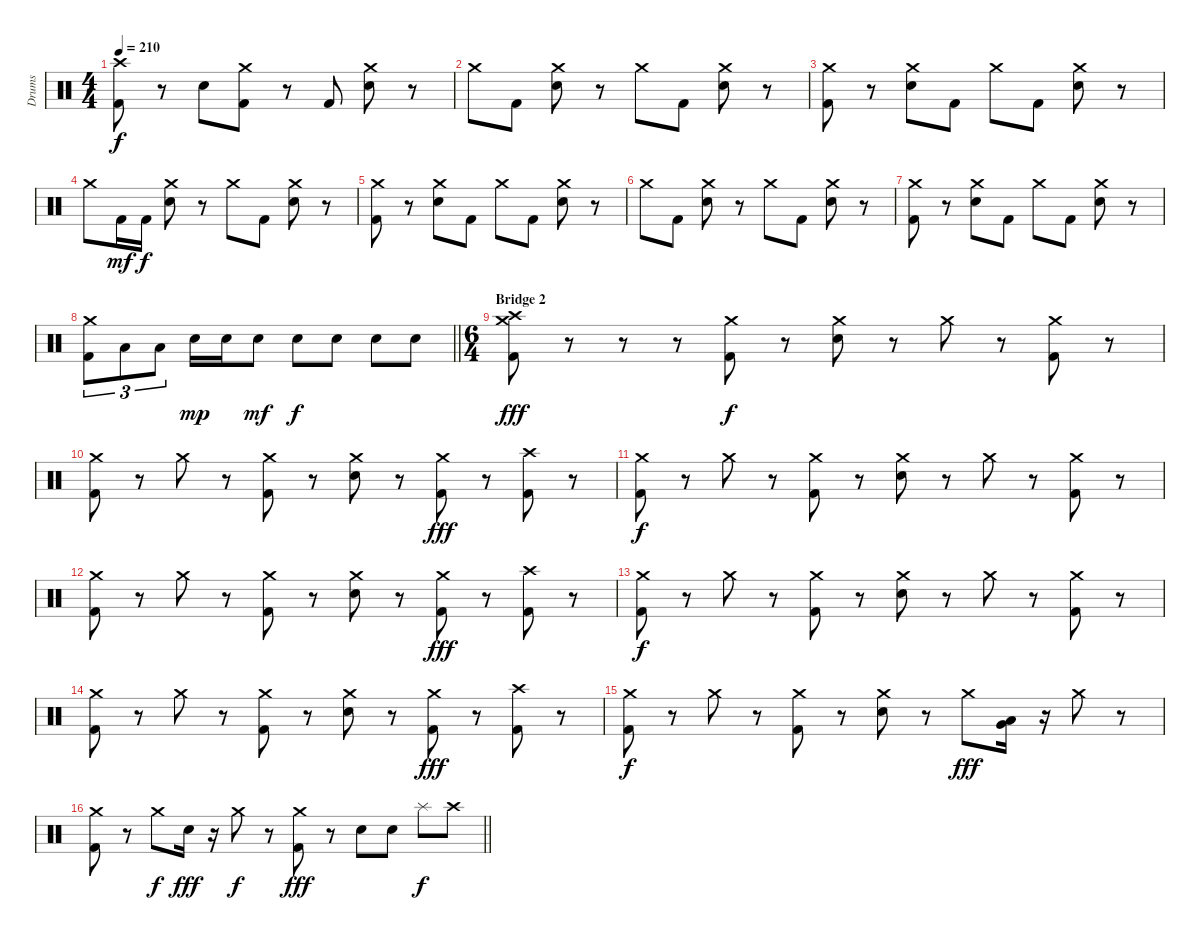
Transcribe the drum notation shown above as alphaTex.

\track ("Drums" "Drums") {instrument percussion}
\staff {score}
\articulation defaults
\ts (4 4)
\tempo 210
\clef neutral
\ks c
("Crash high (hit)" "Kick (hit) 2").8{dy f} r.8 "Electric Snare (hit)".8 ("Crash medium (hit)" "Kick (hit) 2").8 r.8 "Kick (hit) 2".8 ("Crash medium (hit)" "Electric Snare (hit)").8 r.8 |
"Crash medium (hit)".8 "Kick (hit) 2".8 ("Crash medium (hit)" "Electric Snare (hit)").8 r.8 "Crash medium (hit)".8 "Kick (hit) 2".8 ("Crash medium (hit)" "Electric Snare (hit)").8 r.8 |
("Crash medium (hit)" "Kick (hit) 2").8 r.8 ("Crash medium (hit)" "Electric Snare (hit)").8 "Kick (hit) 2".8 "Crash medium (hit)".8 "Kick (hit) 2".8 ("Crash medium (hit)" "Electric Snare (hit)").8 r.8 |
"Crash medium (hit)".8 "Kick (hit) 2".16{dy mf} "Kick (hit) 2".16{dy f} ("Crash medium (hit)" "Electric Snare (hit)").8 r.8 "Crash medium (hit)".8 "Kick (hit) 2".8 ("Crash medium (hit)" "Electric Snare (hit)").8 r.8 |
("Crash medium (hit)" "Kick (hit) 2").8 r.8 ("Crash medium (hit)" "Electric Snare (hit)").8 "Kick (hit) 2".8 "Crash medium (hit)".8 "Kick (hit) 2".8 ("Crash medium (hit)" "Electric Snare (hit)").8 r.8 |
"Crash medium (hit)".8 "Kick (hit) 2".8 ("Crash medium (hit)" "Electric Snare (hit)").8 r.8 "Crash medium (hit)".8 "Kick (hit) 2".8 ("Crash medium (hit)" "Electric Snare (hit)").8 r.8 |
("Crash medium (hit)" "Kick (hit) 2").8 r.8 ("Crash medium (hit)" "Electric Snare (hit)").8 "Kick (hit) 2".8 "Crash medium (hit)".8 "Kick (hit) 2".8 ("Crash medium (hit)" "Electric Snare (hit)").8 r.8 |
\barLineRight lightlight
("Crash medium (hit)" "Kick (hit) 2").8{tu (3 2)} "Low Tom (hit)".8{tu (3 2)} "Low Tom (hit)".8{tu (3 2)} "Electric Snare (hit)".16{dy mp} "Electric Snare (hit)".16 "Electric Snare (hit)".8{dy mf} "Electric Snare (hit)".8{dy f} "Electric Snare (hit)".8 "Electric Snare (hit)".8 "Electric Snare (hit)".8 |
\ts (6 4)
\section ("" "Bridge 2")
("Crash high (hit)" "Crash medium (hit)" "Kick (hit) 2").8{dy fff} r.8 r.8 r.8 ("Crash medium (hit)" "Kick (hit) 2").8{dy f} r.8 ("Crash medium (hit)" "Electric Snare (hit)").8 r.8 "Crash medium (hit)".8 r.8 ("Crash medium (hit)" "Kick (hit) 2").8 r.8 |
("Crash medium (hit)" "Kick (hit) 2").8 r.8 "Crash medium (hit)".8 r.8 ("Crash medium (hit)" "Kick (hit) 2").8 r.8 ("Crash medium (hit)" "Electric Snare (hit)").8 r.8 ("Crash medium (hit)" "Kick (hit) 2").8{dy fff} r.8 ("Crash high (hit)" "Kick (hit) 2").8 r.8 |
("Crash medium (hit)" "Kick (hit) 2").8{dy f} r.8 "Crash medium (hit)".8 r.8 ("Crash medium (hit)" "Kick (hit) 2").8 r.8 ("Crash medium (hit)" "Electric Snare (hit)").8 r.8 "Crash medium (hit)".8 r.8 ("Crash medium (hit)" "Kick (hit) 2").8 r.8 |
("Crash medium (hit)" "Kick (hit) 2").8 r.8 "Crash medium (hit)".8 r.8 ("Crash medium (hit)" "Kick (hit) 2").8 r.8 ("Crash medium (hit)" "Electric Snare (hit)").8 r.8 ("Crash medium (hit)" "Kick (hit) 2").8{dy fff} r.8 ("Crash high (hit)" "Kick (hit) 2").8 r.8 |
("Crash medium (hit)" "Kick (hit) 2").8{dy f} r.8 "Crash medium (hit)".8 r.8 ("Crash medium (hit)" "Kick (hit) 2").8 r.8 ("Crash medium (hit)" "Electric Snare (hit)").8 r.8 "Crash medium (hit)".8 r.8 ("Crash medium (hit)" "Kick (hit) 2").8 r.8 |
("Crash medium (hit)" "Kick (hit) 2").8 r.8 "Crash medium (hit)".8 r.8 ("Crash medium (hit)" "Kick (hit) 2").8 r.8 ("Crash medium (hit)" "Electric Snare (hit)").8 r.8 ("Crash medium (hit)" "Kick (hit) 2").8{dy fff} r.8 ("Crash high (hit)" "Kick (hit) 2").8 r.8 |
("Crash medium (hit)" "Kick (hit) 2").8{dy f} r.8 "Crash medium (hit)".8 r.8 ("Crash medium (hit)" "Kick (hit) 2").8 r.8 ("Crash medium (hit)" "Electric Snare (hit)").8 r.8 "Crash medium (hit)".8{dy fff} ("Very Low Tom (hit)" "Low Floor Tom (hit)").16 r.16 "Crash medium (hit)".8 r.8 |
\barLineRight lightlight
("Crash medium (hit)" "Kick (hit) 2").8 r.8 "Crash medium (hit)".8{dy f} "Electric Snare (hit)".16{dy fff} r.16 "Crash medium (hit)".8{dy f} r.8 ("Crash medium (hit)" "Kick (hit) 2").8{dy fff} r.8 "Electric Snare (hit)".8 "Electric Snare (hit)".8 "Splash (hit)".8{dy f} "Crash high (hit)".8
